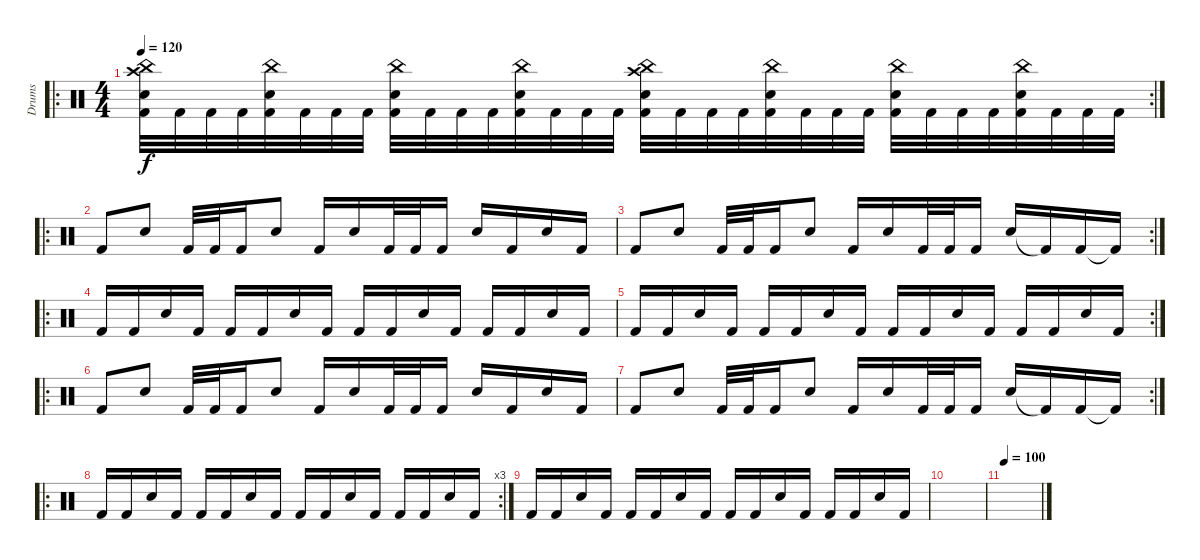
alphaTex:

\track ("Drums" "Drums") {instrument percussion}
\staff {score}
\articulation defaults
\ro
\rc 2
\ts (4 4)
\tempo 120
\clef neutral
\ks c
("China (hit)" "Crash high (hit)" "Electric Snare (hit)" "Kick (hit) 2").32{dy f} "Kick (hit) 2".32 "Kick (hit) 2".32 "Kick (hit) 2".32 ("China (hit)" "Electric Snare (hit)" "Kick (hit) 2").32 "Kick (hit) 2".32 "Kick (hit) 2".32 "Kick (hit) 2".32 ("China (hit)" "Electric Snare (hit)" "Kick (hit) 2").32 "Kick (hit) 2".32 "Kick (hit) 2".32 "Kick (hit) 2".32 ("China (hit)" "Electric Snare (hit)" "Kick (hit) 2").32 "Kick (hit) 2".32 "Kick (hit) 2".32 "Kick (hit) 2".32 ("China (hit)" "Crash high (hit)" "Electric Snare (hit)" "Kick (hit) 2").32 "Kick (hit) 2".32 "Kick (hit) 2".32 "Kick (hit) 2".32 ("China (hit)" "Electric Snare (hit)" "Kick (hit) 2").32 "Kick (hit) 2".32 "Kick (hit) 2".32 "Kick (hit) 2".32 ("China (hit)" "Electric Snare (hit)" "Kick (hit) 2").32 "Kick (hit) 2".32 "Kick (hit) 2".32 "Kick (hit) 2".32 ("China (hit)" "Electric Snare (hit)" "Kick (hit) 2").32 "Kick (hit) 2".32 "Kick (hit) 2".32 "Kick (hit) 2".32 |
\ro "Kick (hit) 2".8 "Electric Snare (hit)".8 "Kick (hit) 2".32 "Kick (hit) 2".32 "Kick (hit) 2".16 "Electric Snare (hit)".8 "Kick (hit) 2".16 "Electric Snare (hit)".16 "Kick (hit) 2".32 "Kick (hit) 2".32 "Kick (hit) 2".16 "Electric Snare (hit)".16 "Kick (hit) 2".16 "Electric Snare (hit)".16 "Kick (hit) 2".16
|
\rc 2 "Kick (hit) 2".8 "Electric Snare (hit)".8 "Kick (hit) 2".32 "Kick (hit) 2".32 "Kick (hit) 2".16 "Electric Snare (hit)".8 "Kick (hit) 2".16 "Electric Snare (hit)".16 "Kick (hit) 2".32 "Kick (hit) 2".32 "Kick (hit) 2".16 "Electric Snare (hit)".16 "Kick (hit) 2"{t}.16 "Kick (hit) 2".16 "Kick (hit) 2"{t}.16
|
\ro "Kick (hit) 2".16 "Kick (hit) 2".16 "Electric Snare (hit)".16 "Kick (hit) 2".16 "Kick (hit) 2".16 "Kick (hit) 2".16 "Electric Snare (hit)".16 "Kick (hit) 2".16 "Kick (hit) 2".16 "Kick (hit) 2".16 "Electric Snare (hit)".16 "Kick (hit) 2".16 "Kick (hit) 2".16 "Kick (hit) 2".16 "Electric Snare (hit)".16 "Kick (hit) 2".16
|
\rc 2 "Kick (hit) 2".16 "Kick (hit) 2".16 "Electric Snare (hit)".16 "Kick (hit) 2".16 "Kick (hit) 2".16 "Kick (hit) 2".16 "Electric Snare (hit)".16 "Kick (hit) 2".16 "Kick (hit) 2".16 "Kick (hit) 2".16 "Electric Snare (hit)".16 "Kick (hit) 2".16 "Kick (hit) 2".16 "Kick (hit) 2".16 "Electric Snare (hit)".16 "Kick (hit) 2".16
|
\ro "Kick (hit) 2".8 "Electric Snare (hit)".8 "Kick (hit) 2".32 "Kick (hit) 2".32 "Kick (hit) 2".16 "Electric Snare (hit)".8 "Kick (hit) 2".16 "Electric Snare (hit)".16 "Kick (hit) 2".32 "Kick (hit) 2".32 "Kick (hit) 2".16 "Electric Snare (hit)".16 "Kick (hit) 2".16 "Electric Snare (hit)".16 "Kick (hit) 2".16
|
\rc 2 "Kick (hit) 2".8 "Electric Snare (hit)".8 "Kick (hit) 2".32 "Kick (hit) 2".32 "Kick (hit) 2".16 "Electric Snare (hit)".8 "Kick (hit) 2".16 "Electric Snare (hit)".16 "Kick (hit) 2".32 "Kick (hit) 2".32 "Kick (hit) 2".16 "Electric Snare (hit)".16 "Kick (hit) 2"{t}.16 "Kick (hit) 2".16 "Kick (hit) 2"{t}.16
|
\ro
\rc 3 "Kick (hit) 2".16 "Kick (hit) 2".16 "Electric Snare (hit)".16 "Kick (hit) 2".16 "Kick (hit) 2".16 "Kick (hit) 2".16 "Electric Snare (hit)".16 "Kick (hit) 2".16 "Kick (hit) 2".16 "Kick (hit) 2".16 "Electric Snare (hit)".16 "Kick (hit) 2".16 "Kick (hit) 2".16 "Kick (hit) 2".16 "Electric Snare (hit)".16 "Kick (hit) 2".16
|
"Kick (hit) 2".16 "Kick (hit) 2".16 "Electric Snare (hit)".16 "Kick (hit) 2".16 "Kick (hit) 2".16 "Kick (hit) 2".16 "Electric Snare (hit)".16 "Kick (hit) 2".16 "Kick (hit) 2".16 "Kick (hit) 2".16 "Electric Snare (hit)".16 "Kick (hit) 2".16 "Kick (hit) 2".16 "Kick (hit) 2".16 "Electric Snare (hit)".16 "Kick (hit) 2".16 |
|
\tempo 100
